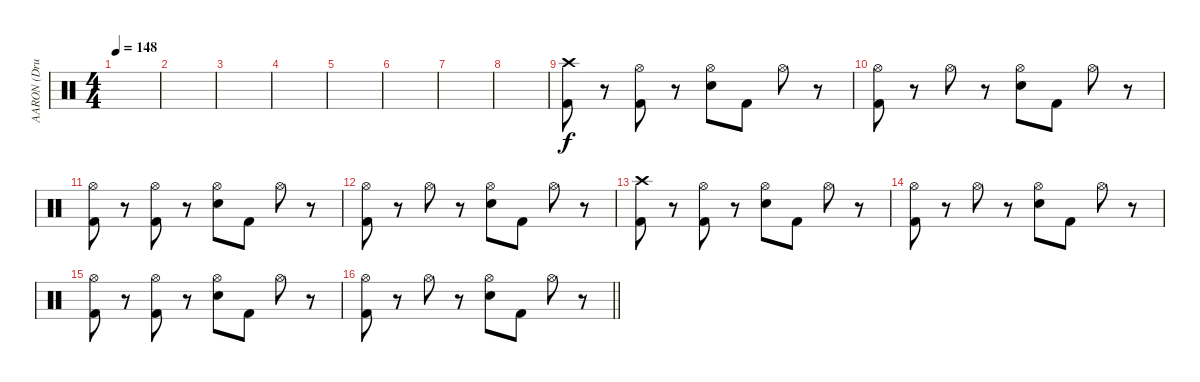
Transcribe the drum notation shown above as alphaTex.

\track ("AARON (Drums)" "AARON (Dru") {instrument percussion}
\staff {score}
\articulation defaults
\ts (4 4)
\tempo 148
\clef neutral
\ks c
|
|
|
|
|
|
|
|
("Crash high (hit)" "Kick (hit) 2").8 r.8 ("Hi-Hat (open)" "Kick (hit) 2").8 r.8 ("Hi-Hat (open)" "Electric Snare (hit)").8 "Kick (hit) 2".8 "Hi-Hat (open)".8 r.8 |
("Hi-Hat (open)" "Kick (hit) 2").8 r.8 "Hi-Hat (open)".8 r.8 ("Hi-Hat (open)" "Electric Snare (hit)").8 "Kick (hit) 2".8 "Hi-Hat (open)".8 r.8 |
("Hi-Hat (open)" "Kick (hit) 2").8 r.8 ("Hi-Hat (open)" "Kick (hit) 2").8 r.8 ("Hi-Hat (open)" "Electric Snare (hit)").8 "Kick (hit) 2".8 "Hi-Hat (open)".8 r.8 |
("Hi-Hat (open)" "Kick (hit) 2").8 r.8 "Hi-Hat (open)".8 r.8 ("Hi-Hat (open)" "Electric Snare (hit)").8 "Kick (hit) 2".8 "Hi-Hat (open)".8 r.8 |
("Crash high (hit)" "Kick (hit) 2").8 r.8 ("Hi-Hat (open)" "Kick (hit) 2").8 r.8 ("Hi-Hat (open)" "Electric Snare (hit)").8 "Kick (hit) 2".8 "Hi-Hat (open)".8 r.8 |
("Hi-Hat (open)" "Kick (hit) 2").8 r.8 "Hi-Hat (open)".8 r.8 ("Hi-Hat (open)" "Electric Snare (hit)").8 "Kick (hit) 2".8 "Hi-Hat (open)".8 r.8 |
("Hi-Hat (open)" "Kick (hit) 2").8 r.8 ("Hi-Hat (open)" "Kick (hit) 2").8 r.8 ("Hi-Hat (open)" "Electric Snare (hit)").8 "Kick (hit) 2".8 "Hi-Hat (open)".8 r.8 |
\barLineRight lightlight
("Hi-Hat (open)" "Kick (hit) 2").8 r.8 "Hi-Hat (open)".8 r.8 ("Hi-Hat (open)" "Electric Snare (hit)").8 "Kick (hit) 2".8 "Hi-Hat (open)".8 r.8
